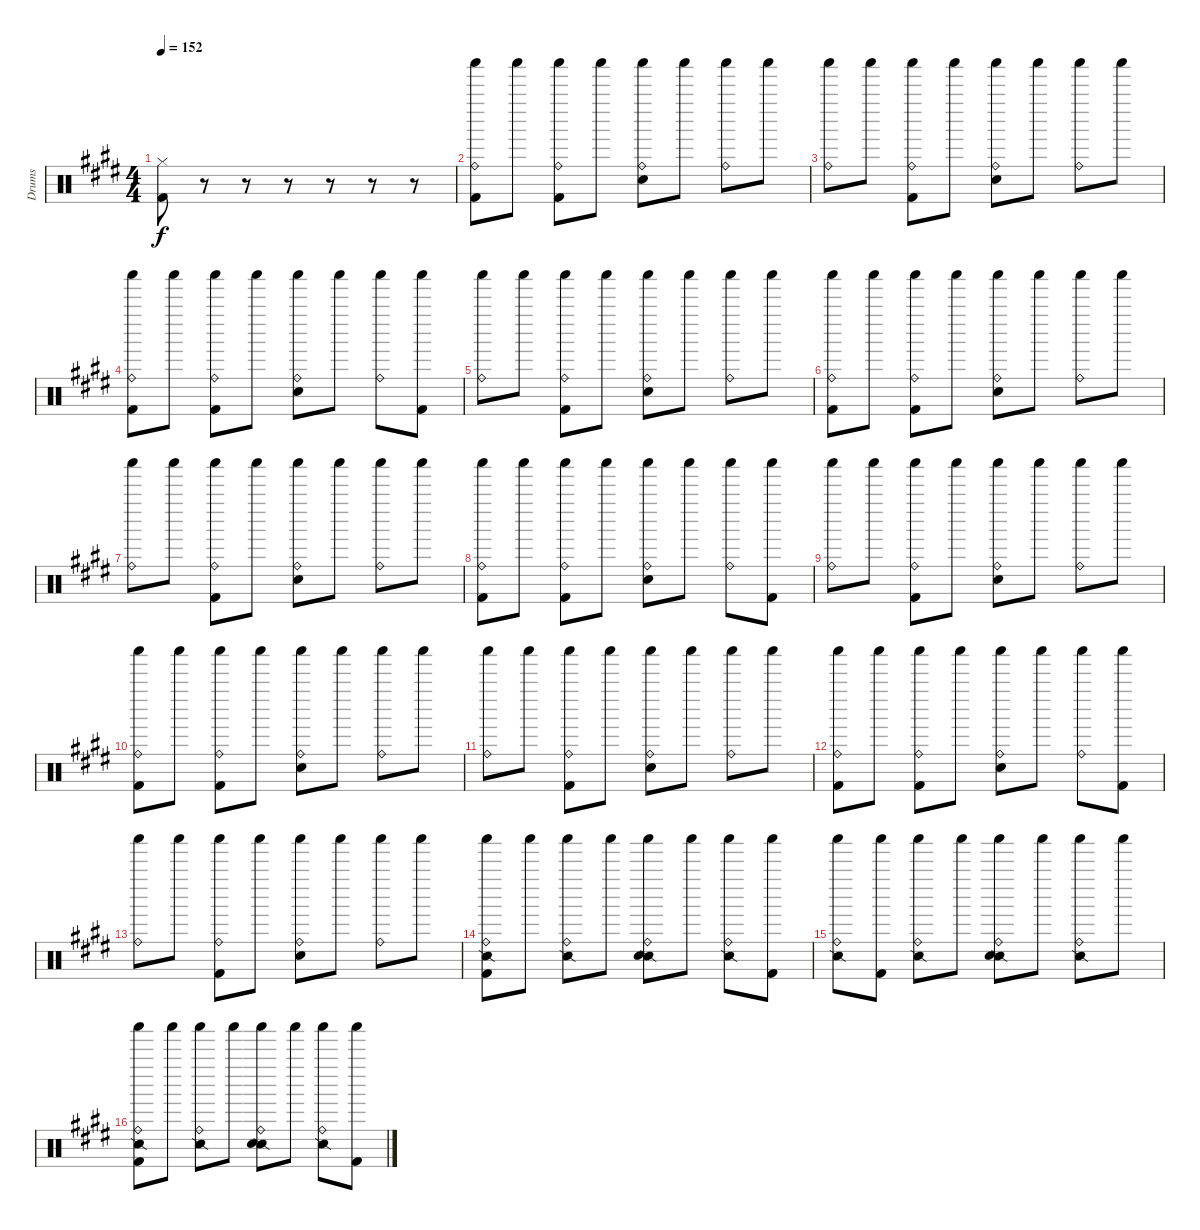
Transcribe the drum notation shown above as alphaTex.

\track ("Drums" "Drums") {instrument percussion}
\staff {score}
\articulation defaults
\ts (4 4)
\tempo 152
\clef neutral
\ks c#minor
("Kick (hit) 2" "Hi-Hat (closed)").8{dy f} r.8 r.8 r.8 r.8 r.8 r.8 |
("Ride (bell)" "Kick (hit) 2" "Shaker (hit)").8 "Shaker (hit)".8 ("Ride (bell)" "Kick (hit) 2" "Shaker (hit)").8 "Shaker (hit)".8 ("Ride (bell)" "Snare (hit) 2" "Shaker (hit)").8 "Shaker (hit)".8 ("Ride (bell)" "Shaker (hit)").8 "Shaker (hit)".8 |
("Ride (bell)" "Shaker (hit)").8 "Shaker (hit)".8 ("Ride (bell)" "Kick (hit) 2" "Shaker (hit)").8 "Shaker (hit)".8 ("Ride (bell)" "Snare (hit) 2" "Shaker (hit)").8 "Shaker (hit)".8 ("Ride (bell)" "Shaker (hit)").8 "Shaker (hit)".8 |
("Ride (bell)" "Kick (hit) 2" "Shaker (hit)").8 "Shaker (hit)".8 ("Ride (bell)" "Kick (hit) 2" "Shaker (hit)").8 "Shaker (hit)".8 ("Ride (bell)" "Snare (hit) 2" "Shaker (hit)").8 "Shaker (hit)".8 ("Ride (bell)" "Shaker (hit)").8 ("Kick (hit) 2" "Shaker (hit)").8 |
("Ride (bell)" "Shaker (hit)").8 "Shaker (hit)".8 ("Ride (bell)" "Kick (hit) 2" "Shaker (hit)").8 "Shaker (hit)".8 ("Ride (bell)" "Snare (hit) 2" "Shaker (hit)").8 "Shaker (hit)".8 ("Ride (bell)" "Shaker (hit)").8 "Shaker (hit)".8 |
("Ride (bell)" "Kick (hit) 2" "Shaker (hit)").8 "Shaker (hit)".8 ("Ride (bell)" "Kick (hit) 2" "Shaker (hit)").8 "Shaker (hit)".8 ("Ride (bell)" "Snare (hit) 2" "Shaker (hit)").8 "Shaker (hit)".8 ("Ride (bell)" "Shaker (hit)").8 "Shaker (hit)".8 |
("Ride (bell)" "Shaker (hit)").8 "Shaker (hit)".8 ("Ride (bell)" "Kick (hit) 2" "Shaker (hit)").8 "Shaker (hit)".8 ("Ride (bell)" "Snare (hit) 2" "Shaker (hit)").8 "Shaker (hit)".8 ("Ride (bell)" "Shaker (hit)").8 "Shaker (hit)".8 |
("Ride (bell)" "Kick (hit) 2" "Shaker (hit)").8 "Shaker (hit)".8 ("Ride (bell)" "Kick (hit) 2" "Shaker (hit)").8 "Shaker (hit)".8 ("Ride (bell)" "Snare (hit) 2" "Shaker (hit)").8 "Shaker (hit)".8 ("Ride (bell)" "Shaker (hit)").8 ("Kick (hit) 2" "Shaker (hit)").8 |
("Ride (bell)" "Shaker (hit)").8 "Shaker (hit)".8 ("Ride (bell)" "Kick (hit) 2" "Shaker (hit)").8 "Shaker (hit)".8 ("Ride (bell)" "Snare (hit) 2" "Shaker (hit)").8 "Shaker (hit)".8 ("Ride (bell)" "Shaker (hit)").8 "Shaker (hit)".8 |
("Ride (bell)" "Kick (hit) 2" "Shaker (hit)").8 "Shaker (hit)".8 ("Ride (bell)" "Kick (hit) 2" "Shaker (hit)").8 "Shaker (hit)".8 ("Ride (bell)" "Snare (hit) 2" "Shaker (hit)").8 "Shaker (hit)".8 ("Ride (bell)" "Shaker (hit)").8 "Shaker (hit)".8 |
("Ride (bell)" "Shaker (hit)").8 "Shaker (hit)".8 ("Ride (bell)" "Kick (hit) 2" "Shaker (hit)").8 "Shaker (hit)".8 ("Ride (bell)" "Snare (hit) 2" "Shaker (hit)").8 "Shaker (hit)".8 ("Ride (bell)" "Shaker (hit)").8 "Shaker (hit)".8 |
("Ride (bell)" "Kick (hit) 2" "Shaker (hit)").8 "Shaker (hit)".8 ("Ride (bell)" "Kick (hit) 2" "Shaker (hit)").8 "Shaker (hit)".8 ("Ride (bell)" "Snare (hit) 2" "Shaker (hit)").8 "Shaker (hit)".8 ("Ride (bell)" "Shaker (hit)").8 ("Kick (hit) 2" "Shaker (hit)").8 |
("Ride (bell)" "Shaker (hit)").8 "Shaker (hit)".8 ("Ride (bell)" "Kick (hit) 2" "Shaker (hit)").8 "Shaker (hit)".8 ("Ride (bell)" "Snare (hit) 2" "Shaker (hit)").8 "Shaker (hit)".8 ("Ride (bell)" "Shaker (hit)").8 "Shaker (hit)".8 |
("Snare (side stick) 2" "Ride (bell)" "Kick (hit) 2" "Shaker (hit)").8 "Shaker (hit)".8 ("Snare (side stick) 2" "Ride (bell)" "Shaker (hit)").8 "Shaker (hit)".8 ("Snare (side stick) 2" "Ride (bell)" "Snare (hit) 2" "Shaker (hit)").8 "Shaker (hit)".8 ("Snare (side stick) 2" "Ride (bell)" "Shaker (hit)").8 ("Kick (hit) 2" "Shaker (hit)").8 |
("Snare (side stick) 2" "Ride (bell)" "Shaker (hit)").8 ("Shaker (hit)" "Kick (hit) 2").8 ("Snare (side stick) 2" "Ride (bell)" "Shaker (hit)").8 "Shaker (hit)".8 ("Snare (side stick) 2" "Ride (bell)" "Snare (hit) 2" "Shaker (hit)").8 "Shaker (hit)".8 ("Snare (side stick) 2" "Ride (bell)" "Shaker (hit)").8 "Shaker (hit)".8 |
("Snare (side stick) 2" "Ride (bell)" "Kick (hit) 2" "Shaker (hit)").8 "Shaker (hit)".8 ("Snare (side stick) 2" "Ride (bell)" "Shaker (hit)").8 "Shaker (hit)".8 ("Snare (side stick) 2" "Ride (bell)" "Snare (hit) 2" "Shaker (hit)").8 "Shaker (hit)".8 ("Snare (side stick) 2" "Ride (bell)" "Shaker (hit)").8 ("Kick (hit) 2" "Shaker (hit)").8
